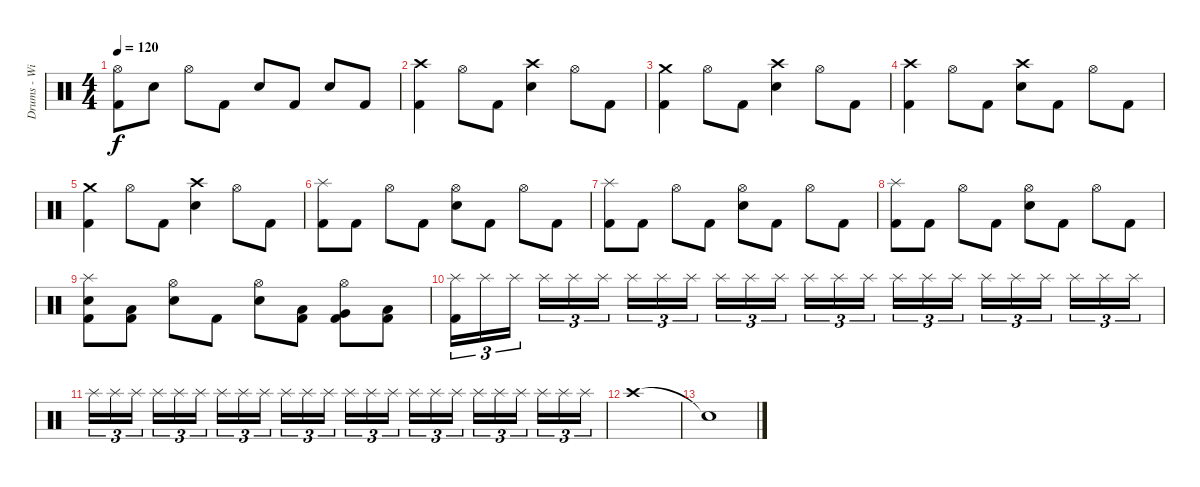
\track ("Drums - Willi Wurm" "Drums - Wi") {instrument percussion}
\staff {score}
\articulation defaults
\ts (4 4)
\tempo 120
\clef neutral
\ks c
("Hi-Hat (open)" "Kick (hit) 2").8{dy f} "Snare (hit) 2".8 "Hi-Hat (open)".8 "Kick (hit) 2".8 "Snare (hit) 2".8 "Kick (hit) 2".8 "Snare (hit) 2".8 "Kick (hit) 2".8 |
("Crash high (hit)" "Kick (hit) 2").4 "Hi-Hat (open)".8 "Kick (hit) 2".8 ("Crash high (hit)" "Snare (hit) 2").4 "Hi-Hat (open)".8 "Kick (hit) 2".8 |
("Crash medium (hit)" "Kick (hit) 2").4 "Hi-Hat (open)".8 "Kick (hit) 2".8 ("Crash high (hit)" "Snare (hit) 2").4 "Hi-Hat (open)".8 "Kick (hit) 2".8 |
("Crash high (hit)" "Kick (hit) 2").4 "Hi-Hat (open)".8 "Kick (hit) 2".8 ("Crash high (hit)" "Snare (hit) 2").8 "Kick (hit) 2".8 "Hi-Hat (open)".8 "Kick (hit) 2".8 |
("Crash medium (hit)" "Kick (hit) 2").4 "Hi-Hat (open)".8 "Kick (hit) 2".8 ("Crash high (hit)" "Snare (hit) 2").4 "Hi-Hat (open)".8 "Kick (hit) 2".8 |
("Splash (hit)" "Kick (hit) 2").8 "Kick (hit) 2".8 "Hi-Hat (open)".8 "Kick (hit) 2".8 ("Hi-Hat (open)" "Snare (hit) 2").8 "Kick (hit) 2".8 "Hi-Hat (open)".8 "Kick (hit) 2".8 |
("Splash (hit)" "Kick (hit) 2").8 "Kick (hit) 2".8 "Hi-Hat (open)".8 "Kick (hit) 2".8 ("Hi-Hat (open)" "Snare (hit) 2").8 "Kick (hit) 2".8 "Hi-Hat (open)".8 "Kick (hit) 2".8 |
("Splash (hit)" "Kick (hit) 2").8 "Kick (hit) 2".8 "Hi-Hat (open)".8 "Kick (hit) 2".8 ("Hi-Hat (open)" "Snare (hit) 2").8 "Kick (hit) 2".8 "Hi-Hat (open)".8 "Kick (hit) 2".8 |
("Splash (hit)" "Snare (hit) 2" "Kick (hit) 2").8 ("Low Floor Tom (hit)" "Kick (hit) 2").8 ("Hi-Hat (open)" "Snare (hit) 2").8 "Kick (hit) 2".8 ("Hi-Hat (open)" "Snare (hit) 2").8 ("Low Tom (hit)" "Kick (hit) 2").8 ("Hi-Hat (open)" "Very Low Tom (hit)" "Kick (hit) 2").8 ("Low Floor Tom (hit)" "Kick (hit) 2").8 |
("Splash (hit)" "Kick (hit) 2").16{tu (3 2)} "Splash (hit)".16{tu (3 2)} "Splash (hit)".16{tu (3 2) beam splitsecondary} "Splash (hit)".16{tu (3 2)} "Splash (hit)".16{tu (3 2)} "Splash (hit)".16{tu (3 2)} "Splash (hit)".16{tu (3 2)} "Splash (hit)".16{tu (3 2)} "Splash (hit)".16{tu (3 2) beam splitsecondary} "Splash (hit)".16{tu (3 2)} "Splash (hit)".16{tu (3 2)} "Splash (hit)".16{tu (3 2)} "Splash (hit)".16{tu (3 2)} "Splash (hit)".16{tu (3 2)} "Splash (hit)".16{tu (3 2) beam splitsecondary} "Splash (hit)".16{tu (3 2)} "Splash (hit)".16{tu (3 2)} "Splash (hit)".16{tu (3 2)} "Splash (hit)".16{tu (3 2)} "Splash (hit)".16{tu (3 2)} "Splash (hit)".16{tu (3 2) beam splitsecondary} "Splash (hit)".16{tu (3 2)} "Splash (hit)".16{tu (3 2)} "Splash (hit)".16{tu (3 2)} |
"Splash (hit)".16{tu (3 2)} "Splash (hit)".16{tu (3 2)} "Splash (hit)".16{tu (3 2) beam splitsecondary} "Splash (hit)".16{tu (3 2)} "Splash (hit)".16{tu (3 2)} "Splash (hit)".16{tu (3 2)} "Splash (hit)".16{tu (3 2)} "Splash (hit)".16{tu (3 2)} "Splash (hit)".16{tu (3 2) beam splitsecondary} "Splash (hit)".16{tu (3 2)} "Splash (hit)".16{tu (3 2)} "Splash (hit)".16{tu (3 2)} "Splash (hit)".16{tu (3 2)} "Splash (hit)".16{tu (3 2)} "Splash (hit)".16{tu (3 2) beam splitsecondary} "Splash (hit)".16{tu (3 2)} "Splash (hit)".16{tu (3 2)} "Splash (hit)".16{tu (3 2)} "Splash (hit)".16{tu (3 2)} "Splash (hit)".16{tu (3 2)} "Splash (hit)".16{tu (3 2) beam splitsecondary} "Splash (hit)".16{tu (3 2)} "Splash (hit)".16{tu (3 2)} "Splash (hit)".16{tu (3 2)} |
"Crash high (hit)".1 |
"Snare (hit)"{t}.1
